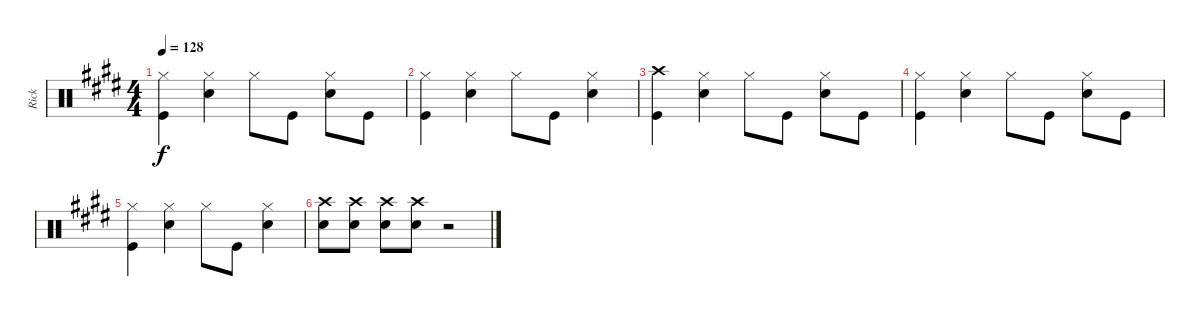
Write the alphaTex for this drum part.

\track ("Rick" "Rick") {instrument percussion}
\staff {score}
\articulation defaults
\ts (4 4)
\tempo 128
\clef neutral
\ks c#minor
("Hi-Hat (closed)" "Kick (hit)").4{dy f} ("Hi-Hat (closed)" "Snare (hit) 2").4 "Hi-Hat (closed)".8 "Kick (hit)".8 ("Hi-Hat (closed)" "Snare (hit) 2").8 "Kick (hit)".8 |
("Hi-Hat (closed)" "Kick (hit)").4 ("Hi-Hat (closed)" "Snare (hit) 2").4 "Hi-Hat (closed)".8 "Kick (hit)".8 ("Hi-Hat (closed)" "Snare (hit) 2").4 |
("Crash high (hit)" "Kick (hit)").4 ("Hi-Hat (closed)" "Snare (hit) 2").4 "Hi-Hat (closed)".8 "Kick (hit)".8 ("Hi-Hat (closed)" "Snare (hit) 2").8 "Kick (hit)".8 |
("Hi-Hat (closed)" "Kick (hit)").4 ("Hi-Hat (closed)" "Snare (hit) 2").4 "Hi-Hat (closed)".8 "Kick (hit)".8 ("Hi-Hat (closed)" "Snare (hit) 2").8 "Kick (hit)".8 |
("Hi-Hat (closed)" "Kick (hit)").4 ("Hi-Hat (closed)" "Snare (hit) 2").4 "Hi-Hat (closed)".8 "Kick (hit)".8 ("Hi-Hat (closed)" "Snare (hit) 2").4 |
("Crash high (hit)" "Snare (hit) 2").8 ("Crash high (hit)" "Snare (hit) 2").8 ("Crash high (hit)" "Snare (hit) 2").8 ("Crash high (hit)" "Snare (hit) 2").8 r.2
